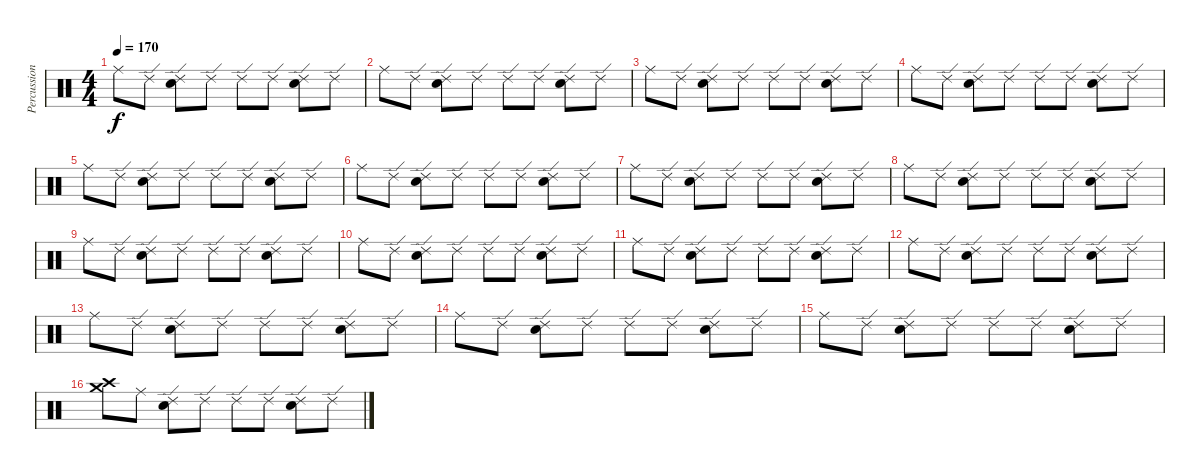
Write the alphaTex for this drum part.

\track ("Percussion" "Percussion") {instrument percussion}
\staff {score}
\articulation defaults
\ts (4 4)
\tempo 170
\clef neutral
\ks c "Ride (middle)".8{dy f} "Ride (edge) 2".8
("Ride (edge) 2" "Electric Snare (hit)").8 "Ride (edge) 2".8 "Ride (edge) 2".8 "Ride (edge) 2".8 ("Ride (edge) 2" "Electric Snare (hit)").8 "Ride (edge) 2".8 |
"Ride (middle)".8 "Ride (edge) 2".8 ("Ride (edge) 2" "Electric Snare (hit)").8 "Ride (edge) 2".8 "Ride (edge) 2".8 "Ride (edge) 2".8 ("Ride (edge) 2" "Electric Snare (hit)").8 "Ride (edge) 2".8 |
"Ride (middle)".8 "Ride (edge) 2".8 ("Ride (edge) 2" "Electric Snare (hit)").8 "Ride (edge) 2".8 "Ride (edge) 2".8 "Ride (edge) 2".8 ("Ride (edge) 2" "Electric Snare (hit)").8 "Ride (edge) 2".8 |
"Ride (middle)".8 "Ride (edge) 2".8 ("Ride (edge) 2" "Electric Snare (hit)").8 "Ride (edge) 2".8 "Ride (edge) 2".8 "Ride (edge) 2".8 ("Ride (edge) 2" "Electric Snare (hit)").8 "Ride (edge) 2".8 |
"Ride (middle)".8 "Ride (edge) 2".8 ("Ride (edge) 2" "Electric Snare (hit)").8 "Ride (edge) 2".8 "Ride (edge) 2".8 "Ride (edge) 2".8 ("Ride (edge) 2" "Electric Snare (hit)").8 "Ride (edge) 2".8 |
"Ride (middle)".8 "Ride (edge) 2".8 ("Ride (edge) 2" "Electric Snare (hit)").8 "Ride (edge) 2".8 "Ride (edge) 2".8 "Ride (edge) 2".8 ("Ride (edge) 2" "Electric Snare (hit)").8 "Ride (edge) 2".8 |
"Ride (middle)".8 "Ride (edge) 2".8 ("Ride (edge) 2" "Electric Snare (hit)").8 "Ride (edge) 2".8 "Ride (edge) 2".8 "Ride (edge) 2".8 ("Ride (edge) 2" "Electric Snare (hit)").8 "Ride (edge) 2".8 |
"Ride (middle)".8 "Ride (edge) 2".8 ("Ride (edge) 2" "Electric Snare (hit)").8 "Ride (edge) 2".8 "Ride (edge) 2".8 "Ride (edge) 2".8 ("Ride (edge) 2" "Electric Snare (hit)").8 "Ride (edge) 2".8 |
"Ride (middle)".8 "Ride (edge) 2".8 ("Ride (edge) 2" "Electric Snare (hit)").8 "Ride (edge) 2".8 "Ride (edge) 2".8 "Ride (edge) 2".8 ("Ride (edge) 2" "Electric Snare (hit)").8 "Ride (edge) 2".8 |
"Ride (middle)".8 "Ride (edge) 2".8 ("Ride (edge) 2" "Electric Snare (hit)").8 "Ride (edge) 2".8 "Ride (edge) 2".8 "Ride (edge) 2".8 ("Ride (edge) 2" "Electric Snare (hit)").8 "Ride (edge) 2".8 |
"Ride (middle)".8 "Ride (edge) 2".8 ("Ride (edge) 2" "Electric Snare (hit)").8 "Ride (edge) 2".8 "Ride (edge) 2".8 "Ride (edge) 2".8 ("Ride (edge) 2" "Electric Snare (hit)").8 "Ride (edge) 2".8 |
"Ride (middle)".8 "Ride (edge) 2".8 ("Ride (edge) 2" "Electric Snare (hit)").8 "Ride (edge) 2".8 "Ride (edge) 2".8 "Ride (edge) 2".8 ("Ride (edge) 2" "Electric Snare (hit)").8 "Ride (edge) 2".8 |
"Ride (middle)".8 "Ride (edge) 2".8 ("Ride (edge) 2" "Electric Snare (hit)").8 "Ride (edge) 2".8 "Ride (edge) 2".8 "Ride (edge) 2".8 ("Ride (edge) 2" "Electric Snare (hit)").8 "Ride (edge) 2".8 |
"Ride (middle)".8 "Ride (edge) 2".8 ("Ride (edge) 2" "Electric Snare (hit)").8 "Ride (edge) 2".8 "Ride (edge) 2".8 "Ride (edge) 2".8 ("Ride (edge) 2" "Electric Snare (hit)").8 "Ride (edge) 2".8 |
"Ride (middle)".8 "Ride (edge) 2".8 ("Ride (edge) 2" "Electric Snare (hit)").8 "Ride (edge) 2".8 "Ride (edge) 2".8 "Ride (edge) 2".8 ("Ride (edge) 2" "Electric Snare (hit)").8 "Ride (edge) 2".8 |
("Crash medium (hit)" "Crash high (hit)").8 "Ride (middle)".8 ("Ride (edge) 2" "Electric Snare (hit)").8 "Ride (edge) 2".8 "Ride (edge) 2".8 "Ride (edge) 2".8 ("Ride (edge) 2" "Electric Snare (hit)").8 "Ride (edge) 2".8
